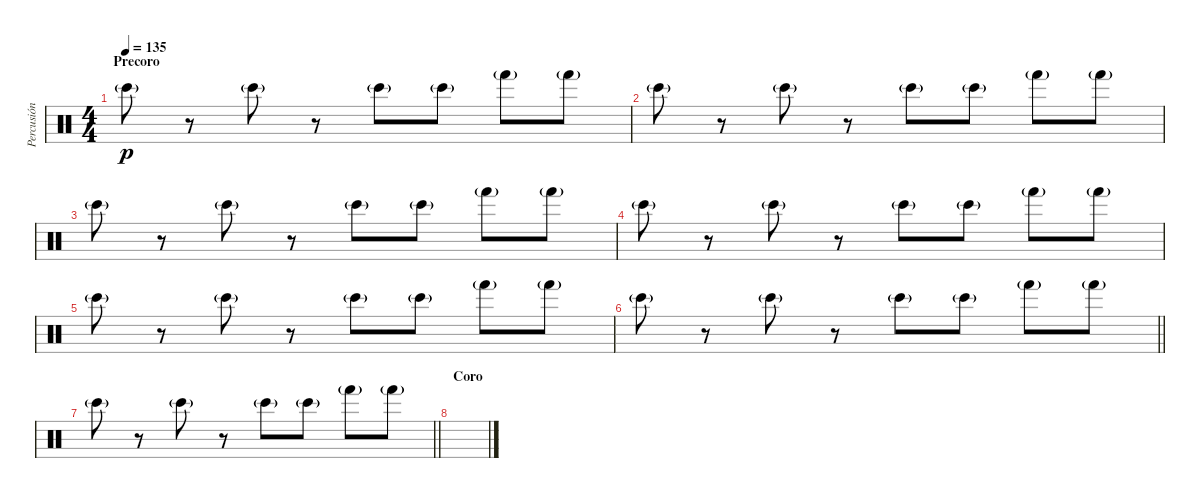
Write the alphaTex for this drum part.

\track ("Percusión" "Percusión") {instrument percussion}
\staff {score}
\articulation defaults
\ts (4 4)
\section ("" "Precoro")
\tempo 135
\clef neutral
\ks c "Bongo High (hit)"{g}.8{dy p}
r.8 "Bongo High (hit)"{g}.8 r.8 "Bongo High (hit)"{g}.8 "Bongo High (hit)"{g}.8 "Hand (hit)"{g}.8 "Hand (hit)"{g}.8 |
"Bongo High (hit)"{g}.8 r.8 "Bongo High (hit)"{g}.8 r.8 "Bongo High (hit)"{g}.8 "Bongo High (hit)"{g}.8 "Hand (hit)"{g}.8 "Hand (hit)"{g}.8 |
"Bongo High (hit)"{g}.8 r.8 "Bongo High (hit)"{g}.8 r.8 "Bongo High (hit)"{g}.8 "Bongo High (hit)"{g}.8 "Hand (hit)"{g}.8 "Hand (hit)"{g}.8 |
"Bongo High (hit)"{g}.8 r.8 "Bongo High (hit)"{g}.8 r.8 "Bongo High (hit)"{g}.8 "Bongo High (hit)"{g}.8 "Hand (hit)"{g}.8 "Hand (hit)"{g}.8 |
"Bongo High (hit)"{g}.8 r.8 "Bongo High (hit)"{g}.8 r.8 "Bongo High (hit)"{g}.8 "Bongo High (hit)"{g}.8 "Hand (hit)"{g}.8 "Hand (hit)"{g}.8 |
\barLineRight lightlight "Bongo High (hit)"{g}.8
r.8 "Bongo High (hit)"{g}.8 r.8 "Bongo High (hit)"{g}.8 "Bongo High (hit)"{g}.8 "Hand (hit)"{g}.8 "Hand (hit)"{g}.8 |
\barLineRight lightlight "Bongo High (hit)"{g}.8
r.8 "Bongo High (hit)"{g}.8 r.8 "Bongo High (hit)"{g}.8 "Bongo High (hit)"{g}.8 "Hand (hit)"{g}.8 "Hand (hit)"{g}.8 |
\section ("" "Coro")
